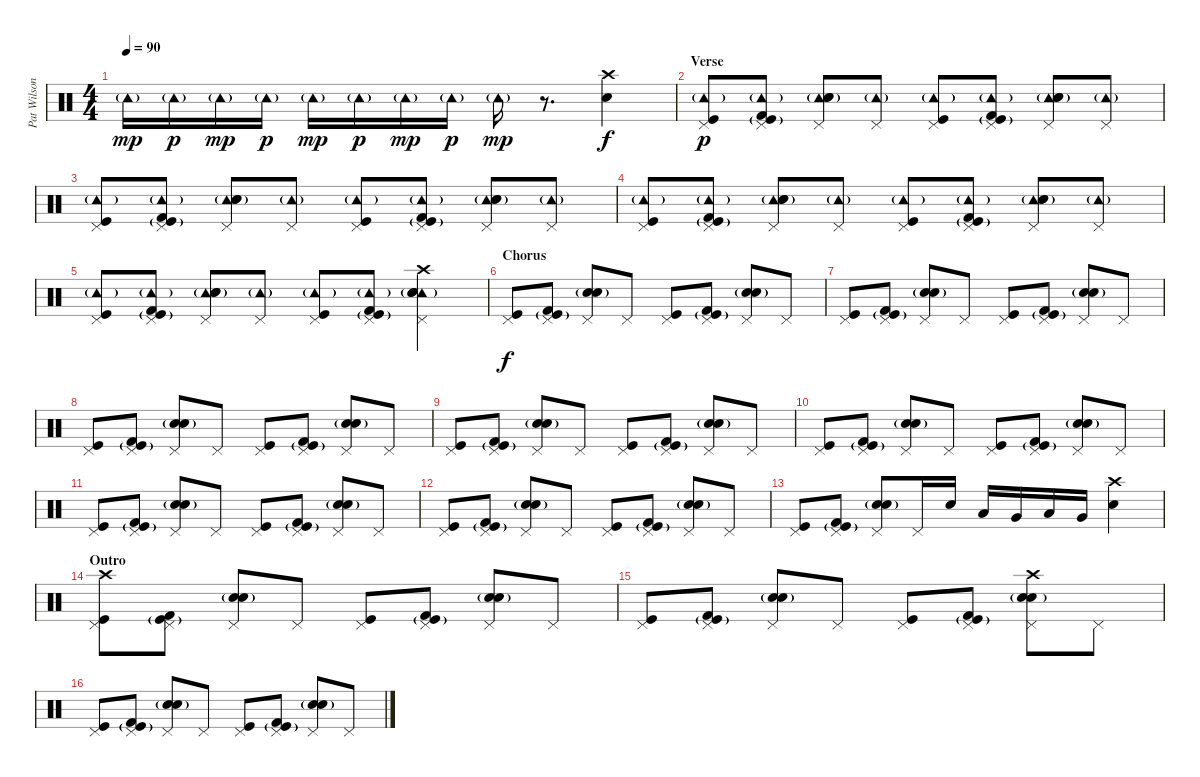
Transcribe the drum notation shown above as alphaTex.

\track ("Pat Wilson" "Pat Wilson") {instrument percussion}
\staff {score}
\articulation defaults
\ts (4 4)
\tempo 90
\clef neutral
\ks c "Tambourine (hit)"{g}.16{dy mp} "Tambourine (hit)"{g}.16{dy p} "Tambourine (hit)"{g}.16{dy mp} "Tambourine (hit)"{g}.16{dy p} "Tambourine (hit)"{g}.16{dy mp} "Tambourine (hit)"{g}.16{dy p} "Tambourine (hit)"{g}.16{dy mp} "Tambourine (hit)"{g}.16{dy p} "Tambourine (hit)"{g}.16{dy mp}
r.8{d} ("Crash high (hit)" "Electric Snare (hit)").4{dy f} |
\section ("" "Verse")
("Tambourine (hit)"{g} "Pedal Hi-Hat (hit)" "Kick (hit)").8{dy p} ("Tambourine (hit)"{g} "Pedal Hi-Hat (hit)" "Kick (hit)"{g} "Kick (hit) 2").8 ("Tambourine (hit)"{g} "Pedal Hi-Hat (hit)" "Hand Clap (hit)"{g} "Electric Snare (hit)").8 ("Tambourine (hit)"{g} "Pedal Hi-Hat (hit)").8 ("Tambourine (hit)"{g} "Pedal Hi-Hat (hit)" "Kick (hit)").8 ("Tambourine (hit)"{g} "Pedal Hi-Hat (hit)" "Kick (hit)"{g} "Kick (hit) 2").8 ("Tambourine (hit)"{g} "Pedal Hi-Hat (hit)" "Hand Clap (hit)"{g} "Electric Snare (hit)").8 ("Tambourine (hit)"{g} "Pedal Hi-Hat (hit)").8 |
("Tambourine (hit)"{g} "Pedal Hi-Hat (hit)" "Kick (hit)").8 ("Tambourine (hit)"{g} "Pedal Hi-Hat (hit)" "Kick (hit)"{g} "Kick (hit) 2").8 ("Tambourine (hit)"{g} "Pedal Hi-Hat (hit)" "Hand Clap (hit)"{g} "Electric Snare (hit)").8 ("Tambourine (hit)"{g} "Pedal Hi-Hat (hit)").8 ("Tambourine (hit)"{g} "Pedal Hi-Hat (hit)" "Kick (hit)").8 ("Tambourine (hit)"{g} "Pedal Hi-Hat (hit)" "Kick (hit)"{g} "Kick (hit) 2").8 ("Tambourine (hit)"{g} "Pedal Hi-Hat (hit)" "Hand Clap (hit)"{g} "Electric Snare (hit)").8 ("Tambourine (hit)"{g} "Pedal Hi-Hat (hit)").8 |
("Tambourine (hit)"{g} "Pedal Hi-Hat (hit)" "Kick (hit)").8 ("Tambourine (hit)"{g} "Pedal Hi-Hat (hit)" "Kick (hit)"{g} "Kick (hit) 2").8 ("Tambourine (hit)"{g} "Pedal Hi-Hat (hit)" "Hand Clap (hit)"{g} "Electric Snare (hit)").8 ("Tambourine (hit)"{g} "Pedal Hi-Hat (hit)").8 ("Tambourine (hit)"{g} "Pedal Hi-Hat (hit)" "Kick (hit)").8 ("Tambourine (hit)"{g} "Pedal Hi-Hat (hit)" "Kick (hit)"{g} "Kick (hit) 2").8 ("Tambourine (hit)"{g} "Pedal Hi-Hat (hit)" "Hand Clap (hit)"{g} "Electric Snare (hit)").8 ("Tambourine (hit)"{g} "Pedal Hi-Hat (hit)").8 |
("Tambourine (hit)"{g} "Pedal Hi-Hat (hit)" "Kick (hit)").8 ("Tambourine (hit)"{g} "Pedal Hi-Hat (hit)" "Kick (hit)"{g} "Kick (hit) 2").8 ("Tambourine (hit)"{g} "Pedal Hi-Hat (hit)" "Hand Clap (hit)"{g} "Electric Snare (hit)").8 ("Tambourine (hit)"{g} "Pedal Hi-Hat (hit)").8 ("Tambourine (hit)"{g} "Pedal Hi-Hat (hit)" "Kick (hit)").8 ("Tambourine (hit)"{g} "Pedal Hi-Hat (hit)" "Kick (hit)"{g} "Kick (hit) 2").8 ("Tambourine (hit)"{g} "Pedal Hi-Hat (hit)" "Crash high (hit)" "Hand Clap (hit)"{g} "Electric Snare (hit)").4 |
\section ("" "Chorus")
("Pedal Hi-Hat (hit)" "Kick (hit)").8{dy f} ("Pedal Hi-Hat (hit)" "Kick (hit)"{g} "Kick (hit) 2").8 ("Pedal Hi-Hat (hit)" "Hand Clap (hit)"{g} "Electric Snare (hit)").8 "Pedal Hi-Hat (hit)".8 ("Pedal Hi-Hat (hit)" "Kick (hit)").8 ("Pedal Hi-Hat (hit)" "Kick (hit)"{g} "Kick (hit) 2").8 ("Pedal Hi-Hat (hit)" "Hand Clap (hit)"{g} "Electric Snare (hit)").8 "Pedal Hi-Hat (hit)".8 |
("Pedal Hi-Hat (hit)" "Kick (hit)").8 ("Pedal Hi-Hat (hit)" "Kick (hit)"{g} "Kick (hit) 2").8 ("Pedal Hi-Hat (hit)" "Hand Clap (hit)"{g} "Electric Snare (hit)").8 "Pedal Hi-Hat (hit)".8 ("Pedal Hi-Hat (hit)" "Kick (hit)").8 ("Pedal Hi-Hat (hit)" "Kick (hit)"{g} "Kick (hit) 2").8 ("Pedal Hi-Hat (hit)" "Hand Clap (hit)"{g} "Electric Snare (hit)").8 "Pedal Hi-Hat (hit)".8 |
("Pedal Hi-Hat (hit)" "Kick (hit)").8 ("Pedal Hi-Hat (hit)" "Kick (hit)"{g} "Kick (hit) 2").8 ("Pedal Hi-Hat (hit)" "Hand Clap (hit)"{g} "Electric Snare (hit)").8 "Pedal Hi-Hat (hit)".8 ("Pedal Hi-Hat (hit)" "Kick (hit)").8 ("Pedal Hi-Hat (hit)" "Kick (hit)"{g} "Kick (hit) 2").8 ("Pedal Hi-Hat (hit)" "Hand Clap (hit)"{g} "Electric Snare (hit)").8 "Pedal Hi-Hat (hit)".8 |
("Pedal Hi-Hat (hit)" "Kick (hit)").8 ("Pedal Hi-Hat (hit)" "Kick (hit)"{g} "Kick (hit) 2").8 ("Pedal Hi-Hat (hit)" "Hand Clap (hit)"{g} "Electric Snare (hit)").8 "Pedal Hi-Hat (hit)".8 ("Pedal Hi-Hat (hit)" "Kick (hit)").8 ("Pedal Hi-Hat (hit)" "Kick (hit)"{g} "Kick (hit) 2").8 ("Pedal Hi-Hat (hit)" "Hand Clap (hit)"{g} "Electric Snare (hit)").8 "Pedal Hi-Hat (hit)".8 |
("Pedal Hi-Hat (hit)" "Kick (hit)").8 ("Pedal Hi-Hat (hit)" "Kick (hit)"{g} "Kick (hit) 2").8 ("Pedal Hi-Hat (hit)" "Hand Clap (hit)"{g} "Electric Snare (hit)").8 "Pedal Hi-Hat (hit)".8 ("Pedal Hi-Hat (hit)" "Kick (hit)").8 ("Pedal Hi-Hat (hit)" "Kick (hit)"{g} "Kick (hit) 2").8 ("Pedal Hi-Hat (hit)" "Hand Clap (hit)"{g} "Electric Snare (hit)").8 "Pedal Hi-Hat (hit)".8 |
("Pedal Hi-Hat (hit)" "Kick (hit)").8 ("Pedal Hi-Hat (hit)" "Kick (hit)"{g} "Kick (hit) 2").8 ("Pedal Hi-Hat (hit)" "Hand Clap (hit)"{g} "Electric Snare (hit)").8 "Pedal Hi-Hat (hit)".8 ("Pedal Hi-Hat (hit)" "Kick (hit)").8 ("Pedal Hi-Hat (hit)" "Kick (hit)"{g} "Kick (hit) 2").8 ("Pedal Hi-Hat (hit)" "Hand Clap (hit)"{g} "Electric Snare (hit)").8 "Pedal Hi-Hat (hit)".8 |
("Pedal Hi-Hat (hit)" "Kick (hit)").8 ("Pedal Hi-Hat (hit)" "Kick (hit)"{g} "Kick (hit) 2").8 ("Pedal Hi-Hat (hit)" "Hand Clap (hit)"{g} "Electric Snare (hit)").8 "Pedal Hi-Hat (hit)".8 ("Pedal Hi-Hat (hit)" "Kick (hit)").8 ("Pedal Hi-Hat (hit)" "Kick (hit)"{g} "Kick (hit) 2").8 ("Pedal Hi-Hat (hit)" "Hand Clap (hit)"{g} "Electric Snare (hit)").8 "Pedal Hi-Hat (hit)".8 |
("Pedal Hi-Hat (hit)" "Kick (hit)").8 ("Pedal Hi-Hat (hit)" "Kick (hit)"{g} "Kick (hit) 2").8 ("Pedal Hi-Hat (hit)" "Hand Clap (hit)"{g} "Electric Snare (hit)").8 "Pedal Hi-Hat (hit)".16 "Snare (hit) 2".16 "Low Tom (hit)".16 "Very Low Tom (hit)".16 "Low Tom (hit)".16 "Very Low Tom (hit)".16 ("Crash high (hit)" "Snare (hit) 2").4 |
\section ("" "Outro")
("Crash high (hit)" "Pedal Hi-Hat (hit)" "Kick (hit)").8 ("Pedal Hi-Hat (hit)" "Kick (hit)"{g} "Kick (hit) 2").8 ("Pedal Hi-Hat (hit)" "Hand Clap (hit)"{g} "Electric Snare (hit)").8 "Pedal Hi-Hat (hit)".8 ("Pedal Hi-Hat (hit)" "Kick (hit)").8 ("Pedal Hi-Hat (hit)" "Kick (hit)"{g} "Kick (hit) 2").8 ("Pedal Hi-Hat (hit)" "Hand Clap (hit)"{g} "Electric Snare (hit)").8 "Pedal Hi-Hat (hit)".8 |
("Pedal Hi-Hat (hit)" "Kick (hit)").8 ("Pedal Hi-Hat (hit)" "Kick (hit)"{g} "Kick (hit) 2").8 ("Pedal Hi-Hat (hit)" "Hand Clap (hit)"{g} "Electric Snare (hit)").8 "Pedal Hi-Hat (hit)".8 ("Pedal Hi-Hat (hit)" "Kick (hit)").8 ("Pedal Hi-Hat (hit)" "Kick (hit)"{g} "Kick (hit) 2").8 ("Crash high (hit)" "Pedal Hi-Hat (hit)" "Hand Clap (hit)"{g} "Electric Snare (hit)").8 "Pedal Hi-Hat (hit)".8 |
("Pedal Hi-Hat (hit)" "Kick (hit)").8 ("Pedal Hi-Hat (hit)" "Kick (hit)"{g} "Kick (hit) 2").8 ("Pedal Hi-Hat (hit)" "Hand Clap (hit)"{g} "Electric Snare (hit)").8 "Pedal Hi-Hat (hit)".8 ("Pedal Hi-Hat (hit)" "Kick (hit)").8 ("Pedal Hi-Hat (hit)" "Kick (hit)"{g} "Kick (hit) 2").8 ("Pedal Hi-Hat (hit)" "Hand Clap (hit)"{g} "Electric Snare (hit)").8 "Pedal Hi-Hat (hit)".8
